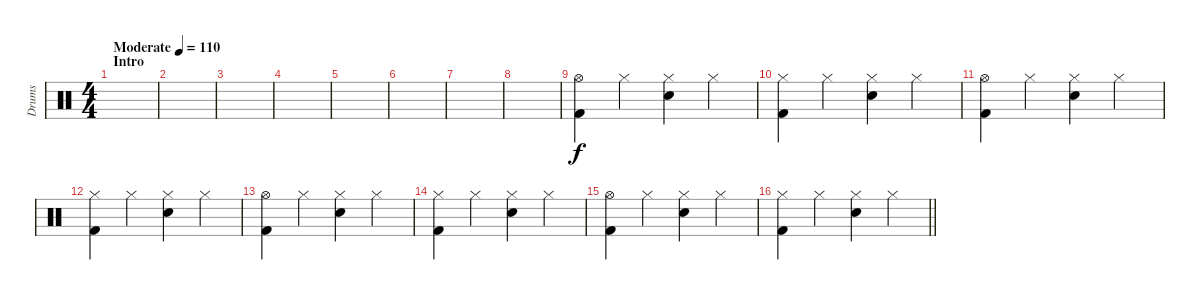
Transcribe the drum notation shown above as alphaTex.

\track ("Drums" "Drums") {instrument percussion}
\staff {score}
\articulation defaults
\ts (4 4)
\section ("" "Intro")
\tempo (110 "Moderate")
\clef neutral
\ks c
|
|
|
|
|
|
|
|
("Kick (hit) 2" "Hi-Hat (open)").4 "Hi-Hat (closed)".4 ("Electric Snare (hit)" "Hi-Hat (closed)").4 "Hi-Hat (closed)".4 |
("Kick (hit) 2" "Hi-Hat (closed)").4 "Hi-Hat (closed)".4 ("Electric Snare (hit)" "Hi-Hat (closed)").4 "Hi-Hat (closed)".4 |
("Kick (hit) 2" "Hi-Hat (open)").4 "Hi-Hat (closed)".4 ("Electric Snare (hit)" "Hi-Hat (closed)").4 "Hi-Hat (closed)".4 |
("Kick (hit) 2" "Hi-Hat (closed)").4 "Hi-Hat (closed)".4 ("Electric Snare (hit)" "Hi-Hat (closed)").4 "Hi-Hat (closed)".4 |
("Kick (hit) 2" "Hi-Hat (open)").4 "Hi-Hat (closed)".4 ("Electric Snare (hit)" "Hi-Hat (closed)").4 "Hi-Hat (closed)".4 |
("Kick (hit) 2" "Hi-Hat (closed)").4 "Hi-Hat (closed)".4 ("Electric Snare (hit)" "Hi-Hat (closed)").4 "Hi-Hat (closed)".4 |
("Kick (hit) 2" "Hi-Hat (open)").4 "Hi-Hat (closed)".4 ("Electric Snare (hit)" "Hi-Hat (closed)").4 "Hi-Hat (closed)".4 |
\barLineRight lightlight
("Kick (hit) 2" "Hi-Hat (closed)").4 "Hi-Hat (closed)".4 ("Electric Snare (hit)" "Hi-Hat (closed)").4 "Hi-Hat (closed)".4
